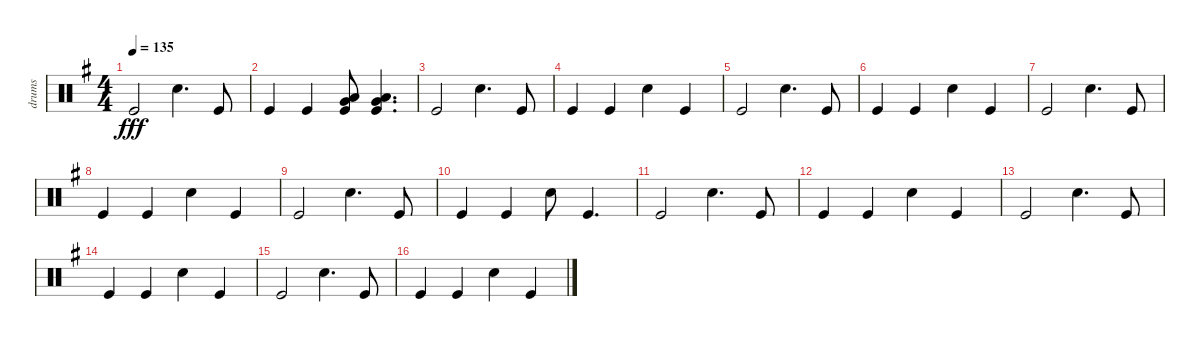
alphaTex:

\track ("drums" "drums") {instrument percussion}
\staff {score}
\articulation defaults
\ts (4 4)
\tempo 135
\clef neutral
\ks eminor "Kick (hit)".2{dy fff} "Electric Snare (hit)".4{d} "Kick (hit)".8
|
"Kick (hit)".4 "Kick (hit)".4 ("Low Tom (hit)" "Very Low Tom (hit)" "Kick (hit)").8 ("Very Low Tom (hit)" "Low Floor Tom (hit)" "Kick (hit)").4{d} |
"Kick (hit)".2 "Electric Snare (hit)".4{d} "Kick (hit)".8 |
"Kick (hit)".4 "Kick (hit)".4 "Electric Snare (hit)".4 "Kick (hit)".4 |
"Kick (hit)".2 "Electric Snare (hit)".4{d} "Kick (hit)".8 |
"Kick (hit)".4 "Kick (hit)".4 "Electric Snare (hit)".4 "Kick (hit)".4 |
"Kick (hit)".2 "Electric Snare (hit)".4{d} "Kick (hit)".8 |
"Kick (hit)".4 "Kick (hit)".4 "Electric Snare (hit)".4 "Kick (hit)".4 |
"Kick (hit)".2 "Electric Snare (hit)".4{d} "Kick (hit)".8 |
"Kick (hit)".4 "Kick (hit)".4 "Electric Snare (hit)".8 "Kick (hit)".4{d} |
"Kick (hit)".2 "Electric Snare (hit)".4{d} "Kick (hit)".8 |
"Kick (hit)".4 "Kick (hit)".4 "Electric Snare (hit)".4 "Kick (hit)".4 |
"Kick (hit)".2 "Electric Snare (hit)".4{d} "Kick (hit)".8 |
"Kick (hit)".4 "Kick (hit)".4 "Electric Snare (hit)".4 "Kick (hit)".4 |
"Kick (hit)".2 "Electric Snare (hit)".4{d} "Kick (hit)".8 |
"Kick (hit)".4 "Kick (hit)".4 "Electric Snare (hit)".4 "Kick (hit)".4
